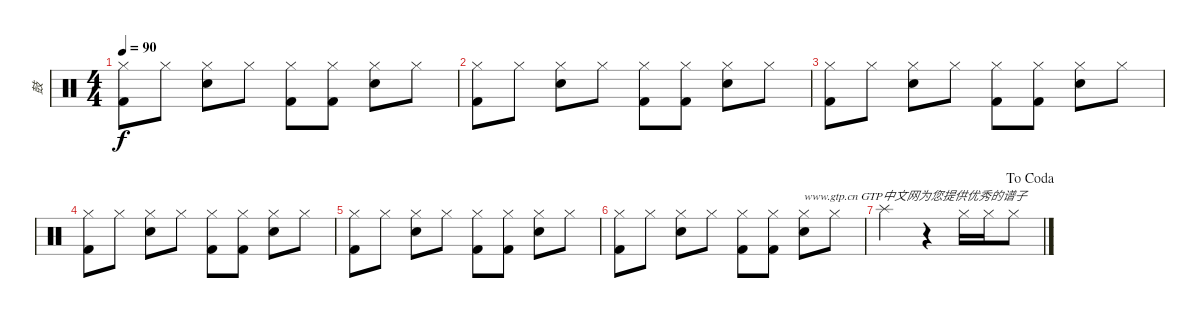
\track ("鼓" "鼓") {instrument percussion}
\staff {score}
\articulation defaults
\ts (4 4)
\tempo 90
\clef neutral
\ks c
("Hi-Hat (closed)" "Kick (hit) 2").8{dy f} "Hi-Hat (closed)".8 ("Electric Snare (hit)" "Hi-Hat (closed)").8 "Hi-Hat (closed)".8 ("Kick (hit) 2" "Hi-Hat (closed)").8 ("Kick (hit) 2" "Hi-Hat (closed)").8 ("Electric Snare (hit)" "Hi-Hat (closed)").8 "Hi-Hat (closed)".8 |
("Hi-Hat (closed)" "Kick (hit) 2").8 "Hi-Hat (closed)".8 ("Electric Snare (hit)" "Hi-Hat (closed)").8 "Hi-Hat (closed)".8 ("Kick (hit) 2" "Hi-Hat (closed)").8 ("Kick (hit) 2" "Hi-Hat (closed)").8 ("Electric Snare (hit)" "Hi-Hat (closed)").8 "Hi-Hat (closed)".8 |
("Hi-Hat (closed)" "Kick (hit) 2").8 "Hi-Hat (closed)".8 ("Electric Snare (hit)" "Hi-Hat (closed)").8 "Hi-Hat (closed)".8 ("Kick (hit) 2" "Hi-Hat (closed)").8 ("Kick (hit) 2" "Hi-Hat (closed)").8 ("Electric Snare (hit)" "Hi-Hat (closed)").8 "Hi-Hat (closed)".8 |
("Hi-Hat (closed)" "Kick (hit) 2").8 "Hi-Hat (closed)".8 ("Electric Snare (hit)" "Hi-Hat (closed)").8 "Hi-Hat (closed)".8 ("Kick (hit) 2" "Hi-Hat (closed)").8 ("Kick (hit) 2" "Hi-Hat (closed)").8 ("Electric Snare (hit)" "Hi-Hat (closed)").8 "Hi-Hat (closed)".8 |
("Hi-Hat (closed)" "Kick (hit) 2").8 "Hi-Hat (closed)".8 ("Electric Snare (hit)" "Hi-Hat (closed)").8 "Hi-Hat (closed)".8 ("Kick (hit) 2" "Hi-Hat (closed)").8 ("Kick (hit) 2" "Hi-Hat (closed)").8 ("Electric Snare (hit)" "Hi-Hat (closed)").8 "Hi-Hat (closed)".8 |
("Hi-Hat (closed)" "Kick (hit) 2").8 "Hi-Hat (closed)".8 ("Electric Snare (hit)" "Hi-Hat (closed)").8 "Hi-Hat (closed)".8 ("Kick (hit) 2" "Hi-Hat (closed)").8 ("Kick (hit) 2" "Hi-Hat (closed)").8 ("Electric Snare (hit)" "Hi-Hat (closed)").8{txt "www.gtp.cn GTP中文网为您提供优秀的谱子"} "Hi-Hat (closed)".8 |
\jump dacoda "Splash (hit)".2
r.4 "Hi-Hat (closed)".16 "Hi-Hat (closed)".16 "Hi-Hat (closed)".8
